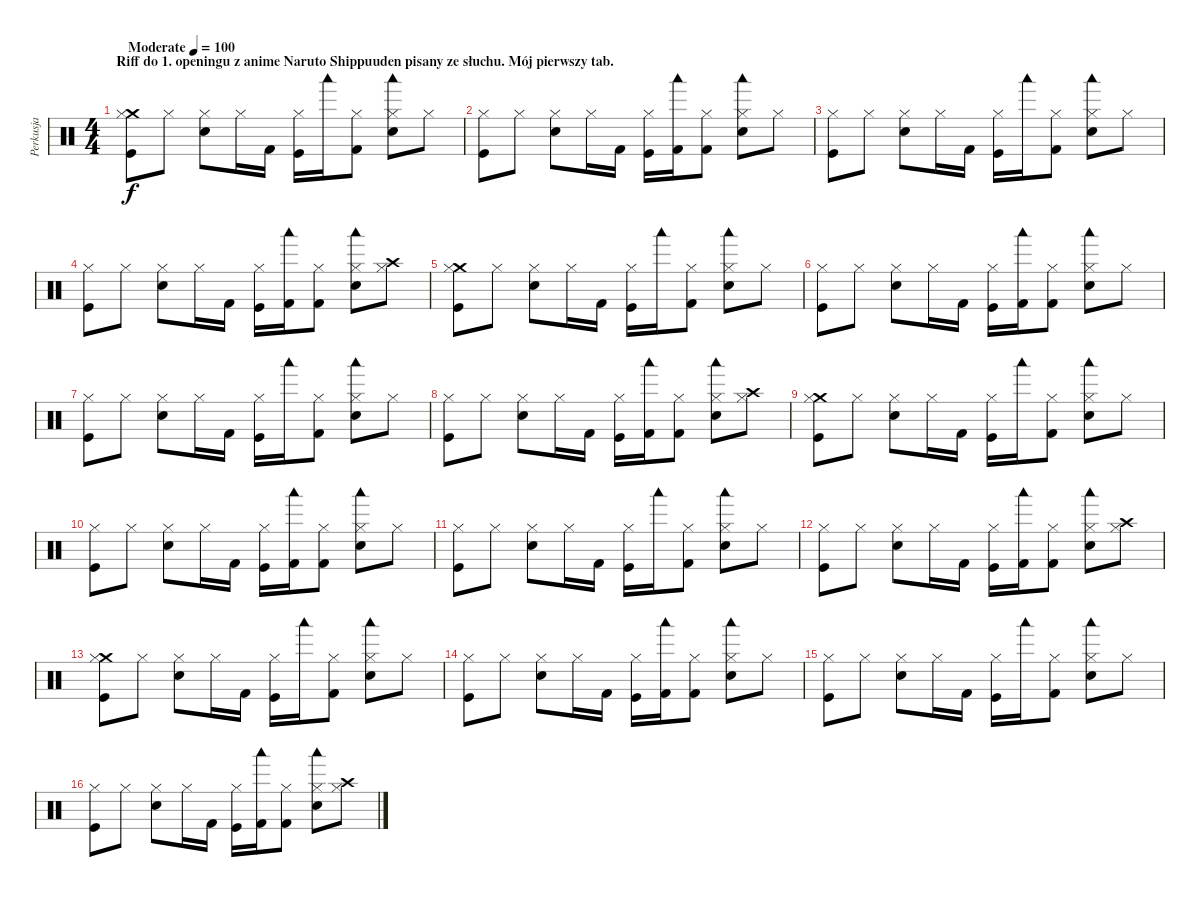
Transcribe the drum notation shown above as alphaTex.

\track ("Perkusja" "Perkusja") {instrument percussion}
\staff {score}
\articulation defaults
\ts (4 4)
\section ("" "Riff do 1. openingu z anime Naruto Shippuuden pisany ze słuchu. Mój pierwszy tab.")
\tempo (100 "Moderate")
\clef neutral
\ks c
("Kick (hit)" "Crash medium (hit)" "Hi-Hat (closed)").8{dy f} "Hi-Hat (closed)".8 ("Electric Snare (hit)" "Hi-Hat (closed)").8 "Hi-Hat (closed)".16 "Kick (hit) 2".16 ("Kick (hit)" "Hi-Hat (closed)").16 "Woodblock low (hit)".16 ("Kick (hit) 2" "Hi-Hat (closed)").8 ("Electric Snare (hit)" "Woodblock low (hit)" "Hi-Hat (closed)").8 "Hi-Hat (closed)".8 |
("Kick (hit)" "Hi-Hat (closed)").8 "Hi-Hat (closed)".8 ("Electric Snare (hit)" "Hi-Hat (closed)").8 "Hi-Hat (closed)".16 "Kick (hit) 2".16 ("Kick (hit)" "Hi-Hat (closed)").16 ("Kick (hit) 2" "Woodblock low (hit)").16 ("Kick (hit) 2" "Hi-Hat (closed)").8 ("Electric Snare (hit)" "Woodblock low (hit)" "Hi-Hat (closed)").8 "Hi-Hat (closed)".8 |
("Kick (hit)" "Hi-Hat (closed)").8 "Hi-Hat (closed)".8 ("Electric Snare (hit)" "Hi-Hat (closed)").8 "Hi-Hat (closed)".16 "Kick (hit) 2".16 ("Kick (hit)" "Hi-Hat (closed)").16 "Woodblock low (hit)".16 ("Kick (hit) 2" "Hi-Hat (closed)").8 ("Electric Snare (hit)" "Woodblock low (hit)" "Hi-Hat (closed)").8 "Hi-Hat (closed)".8 |
("Kick (hit)" "Hi-Hat (closed)").8 "Hi-Hat (closed)".8 ("Electric Snare (hit)" "Hi-Hat (closed)").8 "Hi-Hat (closed)".16 "Kick (hit) 2".16 ("Kick (hit)" "Hi-Hat (closed)").16 ("Kick (hit) 2" "Woodblock low (hit)").16 ("Kick (hit) 2" "Hi-Hat (closed)").8 ("Electric Snare (hit)" "Woodblock low (hit)" "Hi-Hat (closed)").8 ("Crash high (hit)" "Hi-Hat (closed)").8 |
("Kick (hit)" "Crash medium (hit)" "Hi-Hat (closed)").8 "Hi-Hat (closed)".8 ("Electric Snare (hit)" "Hi-Hat (closed)").8 "Hi-Hat (closed)".16 "Kick (hit) 2".16 ("Kick (hit)" "Hi-Hat (closed)").16 "Woodblock low (hit)".16 ("Kick (hit) 2" "Hi-Hat (closed)").8 ("Electric Snare (hit)" "Woodblock low (hit)" "Hi-Hat (closed)").8 "Hi-Hat (closed)".8 |
("Kick (hit)" "Hi-Hat (closed)").8 "Hi-Hat (closed)".8 ("Electric Snare (hit)" "Hi-Hat (closed)").8 "Hi-Hat (closed)".16 "Kick (hit) 2".16 ("Kick (hit)" "Hi-Hat (closed)").16 ("Kick (hit) 2" "Woodblock low (hit)").16 ("Kick (hit) 2" "Hi-Hat (closed)").8 ("Electric Snare (hit)" "Woodblock low (hit)" "Hi-Hat (closed)").8 "Hi-Hat (closed)".8 |
("Kick (hit)" "Hi-Hat (closed)").8 "Hi-Hat (closed)".8 ("Electric Snare (hit)" "Hi-Hat (closed)").8 "Hi-Hat (closed)".16 "Kick (hit) 2".16 ("Kick (hit)" "Hi-Hat (closed)").16 "Woodblock low (hit)".16 ("Kick (hit) 2" "Hi-Hat (closed)").8 ("Electric Snare (hit)" "Woodblock low (hit)" "Hi-Hat (closed)").8 "Hi-Hat (closed)".8 |
("Kick (hit)" "Hi-Hat (closed)").8 "Hi-Hat (closed)".8 ("Electric Snare (hit)" "Hi-Hat (closed)").8 "Hi-Hat (closed)".16 "Kick (hit) 2".16 ("Kick (hit)" "Hi-Hat (closed)").16 ("Kick (hit) 2" "Woodblock low (hit)").16 ("Kick (hit) 2" "Hi-Hat (closed)").8 ("Electric Snare (hit)" "Woodblock low (hit)" "Hi-Hat (closed)").8 ("Crash high (hit)" "Hi-Hat (closed)").8 |
("Kick (hit)" "Crash medium (hit)" "Hi-Hat (closed)").8 "Hi-Hat (closed)".8 ("Electric Snare (hit)" "Hi-Hat (closed)").8 "Hi-Hat (closed)".16 "Kick (hit) 2".16 ("Kick (hit)" "Hi-Hat (closed)").16 "Woodblock low (hit)".16 ("Kick (hit) 2" "Hi-Hat (closed)").8 ("Electric Snare (hit)" "Woodblock low (hit)" "Hi-Hat (closed)").8 "Hi-Hat (closed)".8 |
("Kick (hit)" "Hi-Hat (closed)").8 "Hi-Hat (closed)".8 ("Electric Snare (hit)" "Hi-Hat (closed)").8 "Hi-Hat (closed)".16 "Kick (hit) 2".16 ("Kick (hit)" "Hi-Hat (closed)").16 ("Kick (hit) 2" "Woodblock low (hit)").16 ("Kick (hit) 2" "Hi-Hat (closed)").8 ("Electric Snare (hit)" "Woodblock low (hit)" "Hi-Hat (closed)").8 "Hi-Hat (closed)".8 |
("Kick (hit)" "Hi-Hat (closed)").8 "Hi-Hat (closed)".8 ("Electric Snare (hit)" "Hi-Hat (closed)").8 "Hi-Hat (closed)".16 "Kick (hit) 2".16 ("Kick (hit)" "Hi-Hat (closed)").16 "Woodblock low (hit)".16 ("Kick (hit) 2" "Hi-Hat (closed)").8 ("Electric Snare (hit)" "Woodblock low (hit)" "Hi-Hat (closed)").8 "Hi-Hat (closed)".8 |
("Kick (hit)" "Hi-Hat (closed)").8 "Hi-Hat (closed)".8 ("Electric Snare (hit)" "Hi-Hat (closed)").8 "Hi-Hat (closed)".16 "Kick (hit) 2".16 ("Kick (hit)" "Hi-Hat (closed)").16 ("Kick (hit) 2" "Woodblock low (hit)").16 ("Kick (hit) 2" "Hi-Hat (closed)").8 ("Electric Snare (hit)" "Woodblock low (hit)" "Hi-Hat (closed)").8 ("Crash high (hit)" "Hi-Hat (closed)").8 |
("Kick (hit)" "Crash medium (hit)" "Hi-Hat (closed)").8 "Hi-Hat (closed)".8 ("Electric Snare (hit)" "Hi-Hat (closed)").8 "Hi-Hat (closed)".16 "Kick (hit) 2".16 ("Kick (hit)" "Hi-Hat (closed)").16 "Woodblock low (hit)".16 ("Kick (hit) 2" "Hi-Hat (closed)").8 ("Electric Snare (hit)" "Woodblock low (hit)" "Hi-Hat (closed)").8 "Hi-Hat (closed)".8 |
("Kick (hit)" "Hi-Hat (closed)").8 "Hi-Hat (closed)".8 ("Electric Snare (hit)" "Hi-Hat (closed)").8 "Hi-Hat (closed)".16 "Kick (hit) 2".16 ("Kick (hit)" "Hi-Hat (closed)").16 ("Kick (hit) 2" "Woodblock low (hit)").16 ("Kick (hit) 2" "Hi-Hat (closed)").8 ("Electric Snare (hit)" "Woodblock low (hit)" "Hi-Hat (closed)").8 "Hi-Hat (closed)".8 |
("Kick (hit)" "Hi-Hat (closed)").8 "Hi-Hat (closed)".8 ("Electric Snare (hit)" "Hi-Hat (closed)").8 "Hi-Hat (closed)".16 "Kick (hit) 2".16 ("Kick (hit)" "Hi-Hat (closed)").16 "Woodblock low (hit)".16 ("Kick (hit) 2" "Hi-Hat (closed)").8 ("Electric Snare (hit)" "Woodblock low (hit)" "Hi-Hat (closed)").8 "Hi-Hat (closed)".8 |
("Kick (hit)" "Hi-Hat (closed)").8 "Hi-Hat (closed)".8 ("Electric Snare (hit)" "Hi-Hat (closed)").8 "Hi-Hat (closed)".16 "Kick (hit) 2".16 ("Kick (hit)" "Hi-Hat (closed)").16 ("Kick (hit) 2" "Woodblock low (hit)").16 ("Kick (hit) 2" "Hi-Hat (closed)").8 ("Electric Snare (hit)" "Woodblock low (hit)" "Hi-Hat (closed)").8 ("Crash high (hit)" "Hi-Hat (closed)").8
